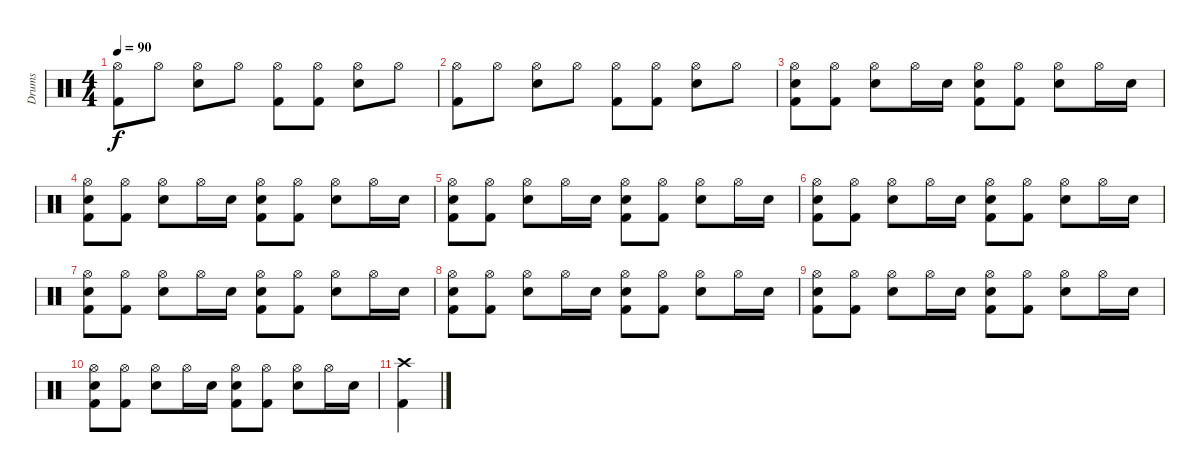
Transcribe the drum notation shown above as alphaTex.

\track ("Drums" "Drums") {instrument percussion}
\staff {score}
\articulation defaults
\ts (4 4)
\tempo 90
\clef neutral
\ks c
("Hi-Hat (open)" "Kick (hit) 2").8{dy f} "Hi-Hat (open)".8 ("Hi-Hat (open)" "Snare (hit) 2").8 "Hi-Hat (open)".8 ("Hi-Hat (open)" "Kick (hit) 2").8 ("Hi-Hat (open)" "Kick (hit) 2").8 ("Hi-Hat (open)" "Snare (hit) 2").8 "Hi-Hat (open)".8 |
("Hi-Hat (open)" "Kick (hit) 2").8 "Hi-Hat (open)".8 ("Hi-Hat (open)" "Snare (hit) 2").8 "Hi-Hat (open)".8 ("Hi-Hat (open)" "Kick (hit) 2").8 ("Hi-Hat (open)" "Kick (hit) 2").8 ("Hi-Hat (open)" "Snare (hit) 2").8 "Hi-Hat (open)".8 |
("Hi-Hat (open)" "Snare (hit) 2" "Kick (hit) 2").8 ("Hi-Hat (open)" "Kick (hit) 2").8 ("Hi-Hat (open)" "Snare (hit) 2").8 "Hi-Hat (open)".16 "Snare (hit) 2".16 ("Hi-Hat (open)" "Snare (hit) 2" "Kick (hit) 2").8 ("Hi-Hat (open)" "Kick (hit) 2").8 ("Hi-Hat (open)" "Snare (hit) 2").8 "Hi-Hat (open)".16 "Snare (hit) 2".16 |
("Hi-Hat (open)" "Snare (hit) 2" "Kick (hit) 2").8 ("Hi-Hat (open)" "Kick (hit) 2").8 ("Hi-Hat (open)" "Snare (hit) 2").8 "Hi-Hat (open)".16 "Snare (hit) 2".16 ("Hi-Hat (open)" "Snare (hit) 2" "Kick (hit) 2").8 ("Hi-Hat (open)" "Kick (hit) 2").8 ("Hi-Hat (open)" "Snare (hit) 2").8 "Hi-Hat (open)".16 "Snare (hit) 2".16 |
("Hi-Hat (open)" "Snare (hit) 2" "Kick (hit) 2").8 ("Hi-Hat (open)" "Kick (hit) 2").8 ("Hi-Hat (open)" "Snare (hit) 2").8 "Hi-Hat (open)".16 "Snare (hit) 2".16 ("Hi-Hat (open)" "Snare (hit) 2" "Kick (hit) 2").8 ("Hi-Hat (open)" "Kick (hit) 2").8 ("Hi-Hat (open)" "Snare (hit) 2").8 "Hi-Hat (open)".16 "Snare (hit) 2".16 |
("Hi-Hat (open)" "Snare (hit) 2" "Kick (hit) 2").8 ("Hi-Hat (open)" "Kick (hit) 2").8 ("Hi-Hat (open)" "Snare (hit) 2").8 "Hi-Hat (open)".16 "Snare (hit) 2".16 ("Hi-Hat (open)" "Snare (hit) 2" "Kick (hit) 2").8 ("Hi-Hat (open)" "Kick (hit) 2").8 ("Hi-Hat (open)" "Snare (hit) 2").8 "Hi-Hat (open)".16 "Snare (hit) 2".16 |
("Hi-Hat (open)" "Snare (hit) 2" "Kick (hit) 2").8 ("Hi-Hat (open)" "Kick (hit) 2").8 ("Hi-Hat (open)" "Snare (hit) 2").8 "Hi-Hat (open)".16 "Snare (hit) 2".16 ("Hi-Hat (open)" "Snare (hit) 2" "Kick (hit) 2").8 ("Hi-Hat (open)" "Kick (hit) 2").8 ("Hi-Hat (open)" "Snare (hit) 2").8 "Hi-Hat (open)".16 "Snare (hit) 2".16 |
("Hi-Hat (open)" "Snare (hit) 2" "Kick (hit) 2").8 ("Hi-Hat (open)" "Kick (hit) 2").8 ("Hi-Hat (open)" "Snare (hit) 2").8 "Hi-Hat (open)".16 "Snare (hit) 2".16 ("Hi-Hat (open)" "Snare (hit) 2" "Kick (hit) 2").8 ("Hi-Hat (open)" "Kick (hit) 2").8 ("Hi-Hat (open)" "Snare (hit) 2").8 "Hi-Hat (open)".16 "Snare (hit) 2".16 |
("Hi-Hat (open)" "Snare (hit) 2" "Kick (hit) 2").8 ("Hi-Hat (open)" "Kick (hit) 2").8 ("Hi-Hat (open)" "Snare (hit) 2").8 "Hi-Hat (open)".16 "Snare (hit) 2".16 ("Hi-Hat (open)" "Snare (hit) 2" "Kick (hit) 2").8 ("Hi-Hat (open)" "Kick (hit) 2").8 ("Hi-Hat (open)" "Snare (hit) 2").8 "Hi-Hat (open)".16 "Snare (hit) 2".16 |
("Hi-Hat (open)" "Snare (hit) 2" "Kick (hit) 2").8 ("Hi-Hat (open)" "Kick (hit) 2").8 ("Hi-Hat (open)" "Snare (hit) 2").8 "Hi-Hat (open)".16 "Snare (hit) 2".16 ("Hi-Hat (open)" "Snare (hit) 2" "Kick (hit) 2").8 ("Hi-Hat (open)" "Kick (hit) 2").8 ("Hi-Hat (open)" "Snare (hit) 2").8 "Hi-Hat (open)".16 "Snare (hit) 2".16 |
("Crash high (hit)" "Kick (hit) 2").4
